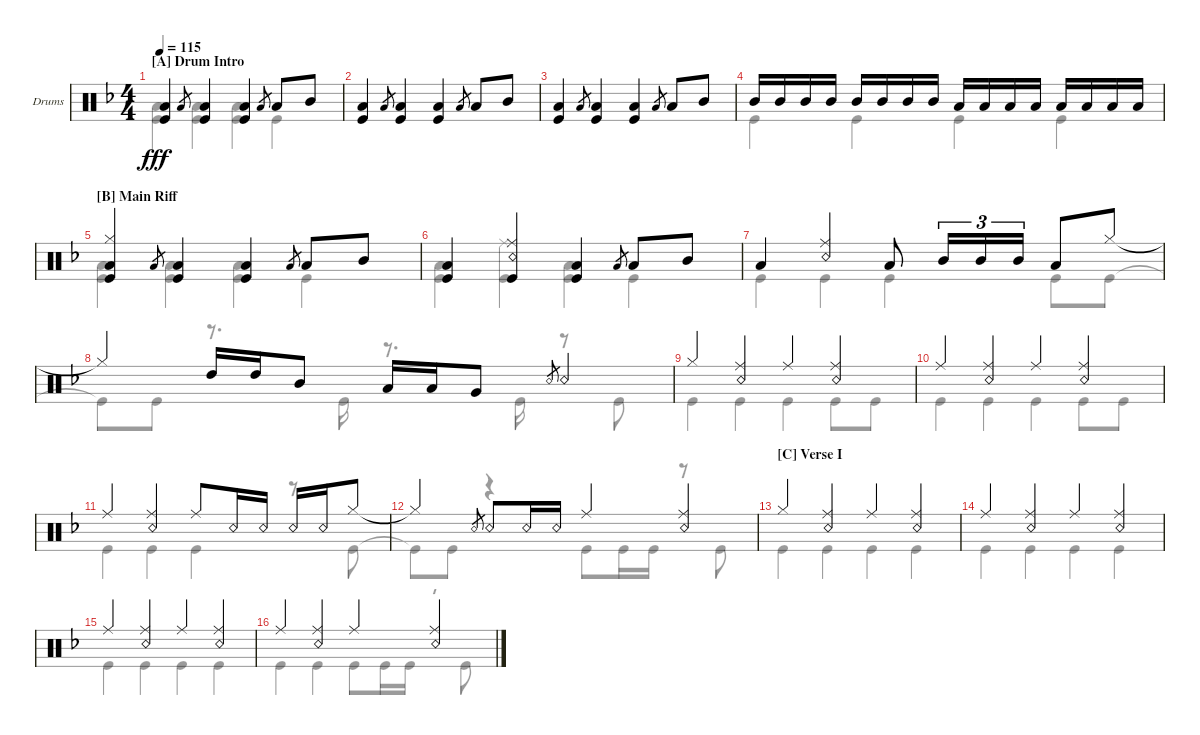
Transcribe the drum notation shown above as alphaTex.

\defaultSystemsLayout 4
\bracketExtendMode groupsimilarinstruments
\firstSystemTrackNameOrientation horizontal
\otherSystemsTrackNameOrientation horizontal
\track ("Randy Castillo" "Drums") {instrument percussion}
\staff {score}
\articulation defaults
\voice
\ts (4 4)
\section ("A" "Drum Intro")
\tempo 115
\clef neutral
\ks f
("Low Tom (hit)" "Kick (hit)").4{dy fff} "Low Tom (hit)".8{gr} ("Low Tom (hit)" "Kick (hit)").4 ("Kick (hit)" "Low Tom (hit)").4 "Low Tom (hit)".8{gr} "Low Tom (hit)".8 "Mid Tom (hit)".8 |
("Low Tom (hit)" "Kick (hit)").4 "Low Tom (hit)".8{gr} ("Low Tom (hit)" "Kick (hit)").4 ("Kick (hit)" "Low Tom (hit)").4 "Low Tom (hit)".8{gr} "Low Tom (hit)".8 "Mid Tom (hit)".8 |
("Low Tom (hit)" "Kick (hit)").4 "Low Tom (hit)".8{gr} ("Low Tom (hit)" "Kick (hit)").4 ("Kick (hit)" "Low Tom (hit)").4 "Low Tom (hit)".8{gr} "Low Tom (hit)".8 "Mid Tom (hit)".8 |
"Mid Tom (hit)".16 "Mid Tom (hit)".16 "Mid Tom (hit)".16 "Mid Tom (hit)".16 "Mid Tom (hit)".16 "Mid Tom (hit)".16 "Mid Tom (hit)".16 "Mid Tom (hit)".16 "Low Tom (hit)".16 "Low Tom (hit)".16 "Low Tom (hit)".16 "Low Tom (hit)".16 "Low Tom (hit)".16 "Low Tom (hit)".16 "Low Tom (hit)".16 "Low Tom (hit)".16 |
\section ("B" "Main Riff")
("Low Tom (hit)" "Kick (hit)" "Hi-Hat (closed)").4 "Low Tom (hit)".8{gr} ("Low Tom (hit)" "Kick (hit)").4 ("Kick (hit)" "Low Tom (hit)").4 "Low Tom (hit)".8{gr} "Low Tom (hit)".8 "Mid Tom (hit)".8 |
("Low Tom (hit)" "Kick (hit)").4 ("Kick (hit)" "Ride (middle)" "Snare (rim shot)").4 ("Low Tom (hit)" "Kick (hit)").4 "Low Tom (hit)".8{gr} "Low Tom (hit)".8 "Mid Tom (hit)".8 |
"Low Tom (hit)".4 ("Snare (rim shot)" "Ride (middle)").4 "Low Tom (hit)".8 "Mid Tom (hit)".16{tu (3 2)} "Mid Tom (hit)".16{tu (3 2)} "Mid Tom (hit)".16{tu (3 2)} "Low Tom (hit)".8 "Hi-Hat (closed)".8 |
"Hi-Hat (closed)"{t}.4 "High Tom (hit)".16 "High Tom (hit)".16 "Mid Tom (hit)".8 "Low Tom (hit)".16 "Low Tom (hit)".16 "Very Low Tom (hit)".8 "Snare (rim shot)".8{gr} "Snare (rim shot)".4 |
"Hi-Hat (closed)".4 ("Ride (middle)" "Snare (rim shot)").4 "Ride (middle)".4 ("Ride (middle)" "Snare (rim shot)").4 |
"Ride (middle)".4 ("Ride (middle)" "Snare (rim shot)").4 "Ride (middle)".4 ("Ride (middle)" "Snare (rim shot)").4 |
"Ride (middle)".4 ("Ride (middle)" "Snare (rim shot)").4 "Ride (middle)".8 "Snare (rim shot)".16 "Snare (rim shot)".16 "Snare (rim shot)".16 "Snare (rim shot)".16 "Hi-Hat (closed)".8 |
"Hi-Hat (closed)"{t}.4 "Snare (rim shot)".8{gr} "Snare (rim shot)".8 "Snare (rim shot)".16 "Snare (rim shot)".16 "Ride (middle)".4 ("Ride (middle)" "Snare (rim shot)").4 |
\section ("C" "Verse I")
"Hi-Hat (closed)".4 ("Ride (middle)" "Snare (rim shot)").4 "Ride (middle)".4 ("Ride (middle)" "Snare (rim shot)").4 |
"Ride (middle)".4 ("Ride (middle)" "Snare (rim shot)").4 "Ride (middle)".4 ("Ride (middle)" "Snare (rim shot)").4 |
"Ride (middle)".4 ("Ride (middle)" "Snare (rim shot)").4 "Ride (middle)".4 ("Ride (middle)" "Snare (rim shot)").4 |
"Ride (middle)".4 ("Ride (middle)" "Snare (rim shot)").4 "Ride (middle)".4 ("Ride (middle)" "Snare (rim shot)").4
\voice
\clef neutral
\ottava regular
\simile none
\ks f
("Kick (hit)" "Low Tom (hit)").4{dy fff} ("Low Tom (hit)" "Kick (hit)").4 ("Kick (hit)" "Low Tom (hit)").4 "Kick (hit)".4 |
|
|
"Kick (hit)".4 "Kick (hit)".4 "Kick (hit)".4 "Kick (hit)".4 |
("Low Tom (hit)" "Kick (hit)").4 ("Kick (hit)" "Low Tom (hit)").4 ("Low Tom (hit)" "Kick (hit)").4 "Kick (hit)".4 |
("Kick (hit)" "Low Tom (hit)").4 ("Kick (hit)" "Ride (middle)").4 ("Low Tom (hit)" "Kick (hit)").4 "Kick (hit)".4 |
"Kick (hit)".4 "Kick (hit)".4 "Kick (hit)".4 "Kick (hit)".8 "Kick (hit)".8 |
"Kick (hit)"{t}.8 "Kick (hit)".8 r.8{d} "Kick (hit)".16 r.8{d} "Kick (hit)".16 r.8 "Kick (hit)".8 |
"Kick (hit)".4 "Kick (hit)".4 "Kick (hit)".4 "Kick (hit)".8 "Kick (hit)".8 |
"Kick (hit)".4 "Kick (hit)".4 "Kick (hit)".4 "Kick (hit)".8 "Kick (hit)".8 |
"Kick (hit)".4 "Kick (hit)".4 "Kick (hit)".4 r.8 "Kick (hit)".8 |
"Kick (hit)"{t}.8 "Kick (hit)".8 r.4 "Kick (hit)".8 "Kick (hit)".16 "Kick (hit)".16 r.8 "Kick (hit)".8 |
"Kick (hit)".4 "Kick (hit)".4 "Kick (hit)".4 "Kick (hit)".4 |
"Kick (hit)".4 "Kick (hit)".4 "Kick (hit)".4 "Kick (hit)".4 |
"Kick (hit)".4 "Kick (hit)".4 "Kick (hit)".4 "Kick (hit)".4 |
"Kick (hit)".4 "Kick (hit)".4 "Kick (hit)".8 "Kick (hit)".16 "Kick (hit)".16 r.8 "Kick (hit)".8
